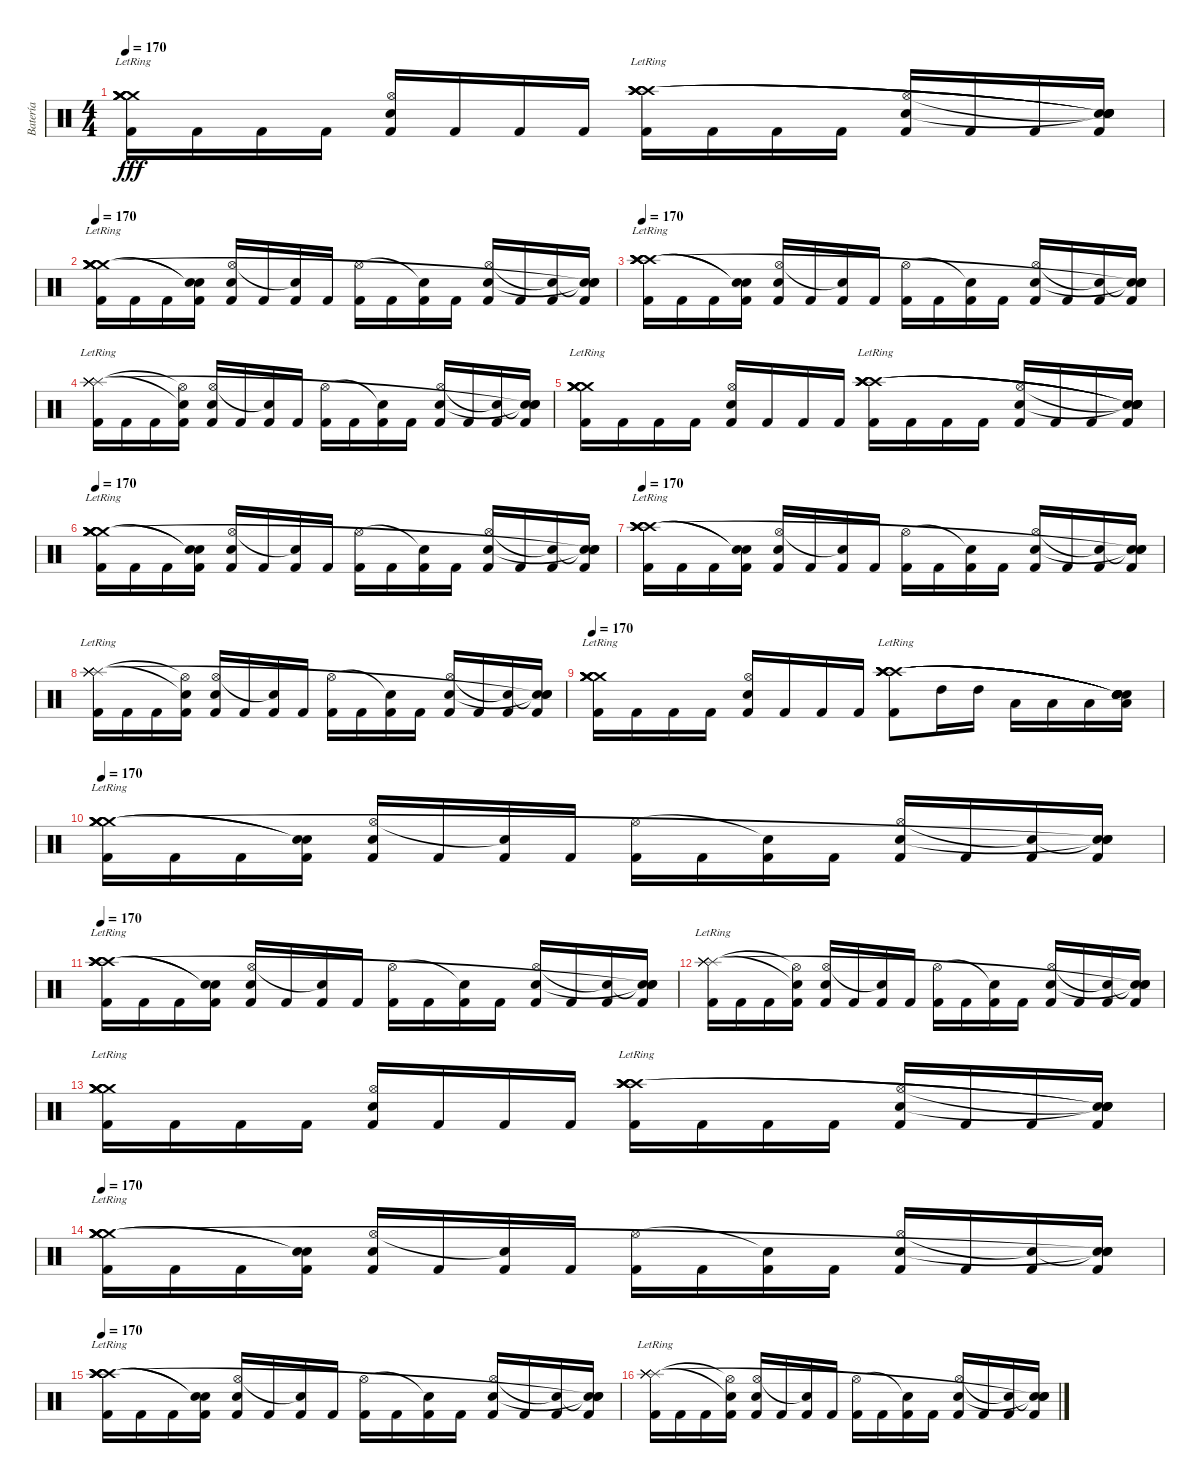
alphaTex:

\track ("Batería" "Batería") {instrument percussion}
\staff {score}
\articulation defaults
\ts (4 4)
\tempo 170
\clef neutral
\ks c
("Kick (hit) 2" "Crash medium (hit)"{lr} "Crash medium (hit)"{lr} "Crash medium (hit)"{lr} "Crash medium (hit)"{lr} "Crash medium (hit)"{lr}).16{dy fff} "Kick (hit) 2".16 "Kick (hit) 2".16 "Kick (hit) 2".16 ("Kick (hit) 2" "Hi-Hat (open)" "Electric Snare (hit)").16 "Kick (hit) 2".16 "Kick (hit) 2".16 "Kick (hit) 2".16 ("Kick (hit) 2"{lr} "Crash high (hit)"{lr} "Crash high (hit)"{lr} "Crash high (hit)"{lr} "Crash high (hit)"{lr} "Crash high (hit)"{lr}).16 "Kick (hit) 2".16 "Kick (hit) 2".16 "Kick (hit) 2".16 ("Kick (hit) 2" "Hi-Hat (open)" "Electric Snare (hit)").16 "Kick (hit) 2".16 "Kick (hit) 2".16 ("Kick (hit) 2" "Snare (hit)"{t} "Snare (hit)"{t} "Snare (hit)"{t} "Snare (hit)"{t} "Snare (hit)"{t}).16 |
\tempo 170
("Kick (hit) 2" "Crash medium (hit)"{lr} "Crash medium (hit)"{lr} "Crash medium (hit)"{lr} "Crash medium (hit)"{lr} "Crash medium (hit)"{lr}).16 "Kick (hit) 2".16 "Kick (hit) 2".16 ("Kick (hit) 2" "Snare (hit)"{t} "Snare (hit)"{t}).16 ("Kick (hit) 2" "Hi-Hat (open)" "Electric Snare (hit)").16 "Kick (hit) 2".16 ("Kick (hit) 2" "Snare (hit)"{t}).16 "Kick (hit) 2".16 ("Kick (hit) 2" "Hi-Hat (open)").16 "Kick (hit) 2".16 ("Kick (hit) 2" "Snare (hit)"{t}).16 "Kick (hit) 2".16 ("Kick (hit) 2" "Hi-Hat (open)" "Electric Snare (hit)").16 "Kick (hit) 2".16 ("Kick (hit) 2" "Snare (hit)"{t}).16 ("Kick (hit) 2" "Snare (hit)"{t} "Snare (hit)"{t} "Snare (hit)"{t}).16 |
\tempo 170
("Kick (hit) 2" "Crash high (hit)"{lr} "Crash high (hit)"{lr} "Crash high (hit)"{lr} "Crash high (hit)"{lr} "Crash high (hit)"{lr}).16 "Kick (hit) 2".16 "Kick (hit) 2".16 ("Kick (hit) 2" "Snare (hit)"{t} "Snare (hit)"{t}).16 ("Kick (hit) 2" "Hi-Hat (open)" "Electric Snare (hit)").16 "Kick (hit) 2".16 ("Kick (hit) 2" "Snare (hit)"{t}).16 "Kick (hit) 2".16 ("Kick (hit) 2" "Hi-Hat (open)").16 "Kick (hit) 2".16 ("Kick (hit) 2" "Snare (hit)"{t}).16 "Kick (hit) 2".16 ("Kick (hit) 2" "Hi-Hat (open)" "Electric Snare (hit)").16 "Kick (hit) 2".16 ("Kick (hit) 2" "Snare (hit)"{t}).16 ("Kick (hit) 2" "Snare (hit)"{t} "Snare (hit)"{t} "Snare (hit)"{t}).16 |
("Kick (hit) 2"{lr} "Splash (hit)"{lr} "Splash (hit)"{lr} "Splash (hit)"{lr} "Splash (hit)"{lr} "Splash (hit)"{lr}).16 "Kick (hit) 2".16 "Kick (hit) 2".16 ("Kick (hit) 2" "Hi-Hat (open)"{t} "Snare (hit)"{t}).16 ("Kick (hit) 2" "Hi-Hat (open)" "Electric Snare (hit)").16 "Kick (hit) 2".16 ("Kick (hit) 2" "Snare (hit)"{t}).16 "Kick (hit) 2".16 ("Kick (hit) 2" "Hi-Hat (open)").16 "Kick (hit) 2".16 ("Kick (hit) 2" "Snare (hit)"{t}).16 "Kick (hit) 2".16 ("Kick (hit) 2" "Hi-Hat (open)" "Electric Snare (hit)").16 "Kick (hit) 2".16 ("Kick (hit) 2" "Snare (hit)"{t}).16 ("Kick (hit) 2" "Snare (hit)"{t} "Snare (hit)"{t} "Snare (hit)"{t}).16 |
("Kick (hit) 2" "Crash medium (hit)"{lr} "Crash medium (hit)"{lr} "Crash medium (hit)"{lr} "Crash medium (hit)"{lr} "Crash medium (hit)"{lr}).16 "Kick (hit) 2".16 "Kick (hit) 2".16 "Kick (hit) 2".16 ("Kick (hit) 2" "Hi-Hat (open)" "Electric Snare (hit)").16 "Kick (hit) 2".16 "Kick (hit) 2".16 "Kick (hit) 2".16 ("Kick (hit) 2"{lr} "Crash high (hit)"{lr} "Crash high (hit)"{lr} "Crash high (hit)"{lr} "Crash high (hit)"{lr} "Crash high (hit)"{lr}).16 "Kick (hit) 2".16 "Kick (hit) 2".16 "Kick (hit) 2".16 ("Kick (hit) 2" "Hi-Hat (open)" "Electric Snare (hit)").16 "Kick (hit) 2".16 "Kick (hit) 2".16 ("Kick (hit) 2" "Snare (hit)"{t} "Snare (hit)"{t} "Snare (hit)"{t} "Snare (hit)"{t} "Snare (hit)"{t}).16 |
\tempo 170
("Kick (hit) 2" "Crash medium (hit)"{lr} "Crash medium (hit)"{lr} "Crash medium (hit)"{lr} "Crash medium (hit)"{lr} "Crash medium (hit)"{lr}).16 "Kick (hit) 2".16 "Kick (hit) 2".16 ("Kick (hit) 2" "Snare (hit)"{t} "Snare (hit)"{t}).16 ("Kick (hit) 2" "Hi-Hat (open)" "Electric Snare (hit)").16 "Kick (hit) 2".16 ("Kick (hit) 2" "Snare (hit)"{t}).16 "Kick (hit) 2".16 ("Kick (hit) 2" "Hi-Hat (open)").16 "Kick (hit) 2".16 ("Kick (hit) 2" "Snare (hit)"{t}).16 "Kick (hit) 2".16 ("Kick (hit) 2" "Hi-Hat (open)" "Electric Snare (hit)").16 "Kick (hit) 2".16 ("Kick (hit) 2" "Snare (hit)"{t}).16 ("Kick (hit) 2" "Snare (hit)"{t} "Snare (hit)"{t} "Snare (hit)"{t}).16 |
\tempo 170
("Kick (hit) 2" "Crash high (hit)"{lr} "Crash high (hit)"{lr} "Crash high (hit)"{lr} "Crash high (hit)"{lr} "Crash high (hit)"{lr}).16 "Kick (hit) 2".16 "Kick (hit) 2".16 ("Kick (hit) 2" "Snare (hit)"{t} "Snare (hit)"{t}).16 ("Kick (hit) 2" "Hi-Hat (open)" "Electric Snare (hit)").16 "Kick (hit) 2".16 ("Kick (hit) 2" "Snare (hit)"{t}).16 "Kick (hit) 2".16 ("Kick (hit) 2" "Hi-Hat (open)").16 "Kick (hit) 2".16 ("Kick (hit) 2" "Snare (hit)"{t}).16 "Kick (hit) 2".16 ("Kick (hit) 2" "Hi-Hat (open)" "Electric Snare (hit)").16 "Kick (hit) 2".16 ("Kick (hit) 2" "Snare (hit)"{t}).16 ("Kick (hit) 2" "Snare (hit)"{t} "Snare (hit)"{t} "Snare (hit)"{t}).16 |
("Kick (hit) 2"{lr} "Splash (hit)"{lr} "Splash (hit)"{lr} "Splash (hit)"{lr} "Splash (hit)"{lr} "Splash (hit)"{lr}).16 "Kick (hit) 2".16 "Kick (hit) 2".16 ("Kick (hit) 2" "Hi-Hat (open)"{t} "Snare (hit)"{t}).16 ("Kick (hit) 2" "Hi-Hat (open)" "Electric Snare (hit)").16 "Kick (hit) 2".16 ("Kick (hit) 2" "Snare (hit)"{t}).16 "Kick (hit) 2".16 ("Kick (hit) 2" "Hi-Hat (open)").16 "Kick (hit) 2".16 ("Kick (hit) 2" "Snare (hit)"{t}).16 "Kick (hit) 2".16 ("Kick (hit) 2" "Hi-Hat (open)" "Electric Snare (hit)").16 "Kick (hit) 2".16 ("Kick (hit) 2" "Snare (hit)"{t}).16 ("Kick (hit) 2" "Snare (hit)"{t} "Snare (hit)"{t} "Snare (hit)"{t}).16 |
\tempo 170
("Kick (hit) 2" "Crash medium (hit)"{lr} "Crash medium (hit)"{lr} "Crash medium (hit)"{lr} "Crash medium (hit)"{lr} "Crash medium (hit)"{lr}).16 "Kick (hit) 2".16 "Kick (hit) 2".16 "Kick (hit) 2".16 ("Kick (hit) 2" "Hi-Hat (open)" "Electric Snare (hit)").16 "Kick (hit) 2".16 "Kick (hit) 2".16 "Kick (hit) 2".16 ("Kick (hit) 2"{lr} "Crash high (hit)"{lr} "Crash high (hit)"{lr} "Crash high (hit)"{lr} "Crash high (hit)"{lr} "Crash high (hit)"{lr}).8 "High Tom (hit)".16 "High Tom (hit)".16 "Low Tom (hit)".16 "Low Tom (hit)".16 "Low Floor Tom (hit)".16 ("Low Floor Tom (hit)" "Snare (hit)"{t} "Snare (hit)"{t} "Snare (hit)"{t} "Snare (hit)"{t} "Snare (hit)"{t}).16 |
\tempo 170
("Kick (hit) 2" "Crash medium (hit)"{lr} "Crash medium (hit)"{lr} "Crash medium (hit)"{lr} "Crash medium (hit)"{lr} "Crash medium (hit)"{lr}).16 "Kick (hit) 2".16 "Kick (hit) 2".16 ("Kick (hit) 2" "Snare (hit)"{t} "Snare (hit)"{t}).16 ("Kick (hit) 2" "Hi-Hat (open)" "Electric Snare (hit)").16 "Kick (hit) 2".16 ("Kick (hit) 2" "Snare (hit)"{t}).16 "Kick (hit) 2".16 ("Kick (hit) 2" "Hi-Hat (open)").16 "Kick (hit) 2".16 ("Kick (hit) 2" "Snare (hit)"{t}).16 "Kick (hit) 2".16 ("Kick (hit) 2" "Hi-Hat (open)" "Electric Snare (hit)").16 "Kick (hit) 2".16 ("Kick (hit) 2" "Snare (hit)"{t}).16 ("Kick (hit) 2" "Snare (hit)"{t} "Snare (hit)"{t} "Snare (hit)"{t}).16 |
\tempo 170
("Kick (hit) 2" "Crash high (hit)"{lr} "Crash high (hit)"{lr} "Crash high (hit)"{lr} "Crash high (hit)"{lr} "Crash high (hit)"{lr}).16 "Kick (hit) 2".16 "Kick (hit) 2".16 ("Kick (hit) 2" "Snare (hit)"{t} "Snare (hit)"{t}).16 ("Kick (hit) 2" "Hi-Hat (open)" "Electric Snare (hit)").16 "Kick (hit) 2".16 ("Kick (hit) 2" "Snare (hit)"{t}).16 "Kick (hit) 2".16 ("Kick (hit) 2" "Hi-Hat (open)").16 "Kick (hit) 2".16 ("Kick (hit) 2" "Snare (hit)"{t}).16 "Kick (hit) 2".16 ("Kick (hit) 2" "Hi-Hat (open)" "Electric Snare (hit)").16 "Kick (hit) 2".16 ("Kick (hit) 2" "Snare (hit)"{t}).16 ("Kick (hit) 2" "Snare (hit)"{t} "Snare (hit)"{t} "Snare (hit)"{t}).16 |
("Kick (hit) 2"{lr} "Splash (hit)"{lr} "Splash (hit)"{lr} "Splash (hit)"{lr} "Splash (hit)"{lr} "Splash (hit)"{lr}).16 "Kick (hit) 2".16 "Kick (hit) 2".16 ("Kick (hit) 2" "Hi-Hat (open)"{t} "Snare (hit)"{t}).16 ("Kick (hit) 2" "Hi-Hat (open)" "Electric Snare (hit)").16 "Kick (hit) 2".16 ("Kick (hit) 2" "Snare (hit)"{t}).16 "Kick (hit) 2".16 ("Kick (hit) 2" "Hi-Hat (open)").16 "Kick (hit) 2".16 ("Kick (hit) 2" "Snare (hit)"{t}).16 "Kick (hit) 2".16 ("Kick (hit) 2" "Hi-Hat (open)" "Electric Snare (hit)").16 "Kick (hit) 2".16 ("Kick (hit) 2" "Snare (hit)"{t}).16 ("Kick (hit) 2" "Snare (hit)"{t} "Snare (hit)"{t} "Snare (hit)"{t}).16 |
("Kick (hit) 2" "Crash medium (hit)"{lr} "Crash medium (hit)"{lr} "Crash medium (hit)"{lr} "Crash medium (hit)"{lr} "Crash medium (hit)"{lr}).16 "Kick (hit) 2".16 "Kick (hit) 2".16 "Kick (hit) 2".16 ("Kick (hit) 2" "Hi-Hat (open)" "Electric Snare (hit)").16 "Kick (hit) 2".16 "Kick (hit) 2".16 "Kick (hit) 2".16 ("Kick (hit) 2"{lr} "Crash high (hit)"{lr} "Crash high (hit)"{lr} "Crash high (hit)"{lr} "Crash high (hit)"{lr} "Crash high (hit)"{lr}).16 "Kick (hit) 2".16 "Kick (hit) 2".16 "Kick (hit) 2".16 ("Kick (hit) 2" "Hi-Hat (open)" "Electric Snare (hit)").16 "Kick (hit) 2".16 "Kick (hit) 2".16 ("Kick (hit) 2" "Snare (hit)"{t} "Snare (hit)"{t} "Snare (hit)"{t} "Snare (hit)"{t}).16 |
\tempo 170
("Kick (hit) 2" "Crash medium (hit)"{lr} "Crash medium (hit)"{lr} "Crash medium (hit)"{lr} "Crash medium (hit)"{lr} "Crash medium (hit)"{lr}).16 "Kick (hit) 2".16 "Kick (hit) 2".16 ("Kick (hit) 2" "Snare (hit)"{t} "Snare (hit)"{t}).16 ("Kick (hit) 2" "Hi-Hat (open)" "Electric Snare (hit)").16 "Kick (hit) 2".16 ("Kick (hit) 2" "Snare (hit)"{t}).16 "Kick (hit) 2".16 ("Kick (hit) 2" "Hi-Hat (open)").16 "Kick (hit) 2".16 ("Kick (hit) 2" "Snare (hit)"{t}).16 "Kick (hit) 2".16 ("Kick (hit) 2" "Hi-Hat (open)" "Electric Snare (hit)").16 "Kick (hit) 2".16 ("Kick (hit) 2" "Snare (hit)"{t}).16 ("Kick (hit) 2" "Snare (hit)"{t} "Snare (hit)"{t} "Snare (hit)"{t}).16 |
\tempo 170
("Kick (hit) 2" "Crash high (hit)"{lr} "Crash high (hit)"{lr} "Crash high (hit)"{lr} "Crash high (hit)"{lr} "Crash high (hit)"{lr}).16 "Kick (hit) 2".16 "Kick (hit) 2".16 ("Kick (hit) 2" "Snare (hit)"{t} "Snare (hit)"{t}).16 ("Kick (hit) 2" "Hi-Hat (open)" "Electric Snare (hit)").16 "Kick (hit) 2".16 ("Kick (hit) 2" "Snare (hit)"{t}).16 "Kick (hit) 2".16 ("Kick (hit) 2" "Hi-Hat (open)").16 "Kick (hit) 2".16 ("Kick (hit) 2" "Snare (hit)"{t}).16 "Kick (hit) 2".16 ("Kick (hit) 2" "Hi-Hat (open)" "Electric Snare (hit)").16 "Kick (hit) 2".16 ("Kick (hit) 2" "Snare (hit)"{t}).16 ("Kick (hit) 2" "Snare (hit)"{t} "Snare (hit)"{t} "Snare (hit)"{t}).16 |
("Kick (hit) 2"{lr} "Splash (hit)"{lr} "Splash (hit)"{lr} "Splash (hit)"{lr} "Splash (hit)"{lr} "Splash (hit)"{lr}).16 "Kick (hit) 2".16 "Kick (hit) 2".16 ("Kick (hit) 2" "Hi-Hat (open)"{t} "Snare (hit)"{t}).16 ("Kick (hit) 2" "Hi-Hat (open)" "Electric Snare (hit)").16 "Kick (hit) 2".16 ("Kick (hit) 2" "Snare (hit)"{t}).16 "Kick (hit) 2".16 ("Kick (hit) 2" "Hi-Hat (open)").16 "Kick (hit) 2".16 ("Kick (hit) 2" "Snare (hit)"{t}).16 "Kick (hit) 2".16 ("Kick (hit) 2" "Hi-Hat (open)" "Electric Snare (hit)").16 "Kick (hit) 2".16 ("Kick (hit) 2" "Snare (hit)"{t}).16 ("Kick (hit) 2" "Snare (hit)"{t} "Snare (hit)"{t} "Snare (hit)"{t}).16
